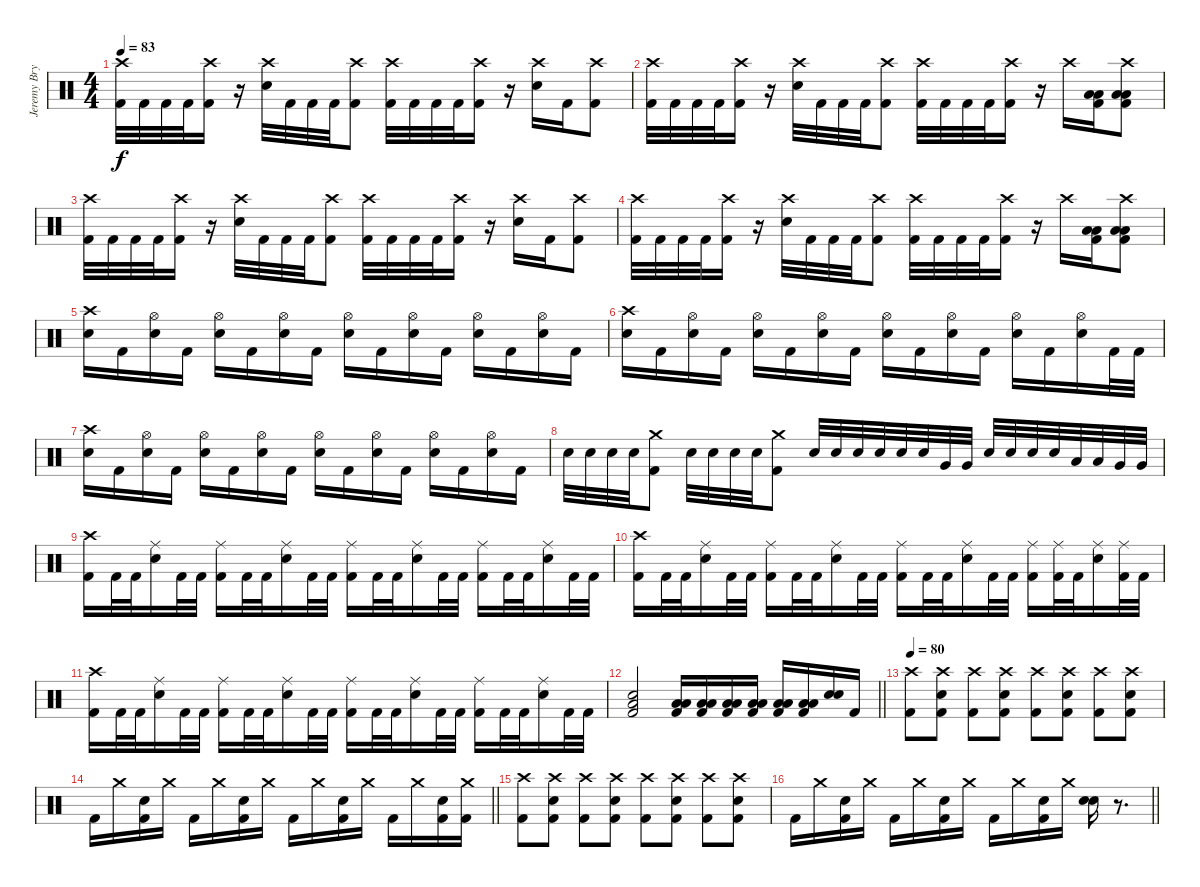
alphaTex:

\track ("Jeremy Bryan - Drums" "Jeremy Bry") {instrument percussion}
\staff {score}
\articulation defaults
\ts (4 4)
\tempo 83
\clef neutral
\ks c
("Crash high (hit)" "Kick (hit) 2").32{dy f} "Kick (hit) 2".32 "Kick (hit) 2".32 "Kick (hit) 2".32 ("Crash high (hit)" "Kick (hit) 2").16 r.16 ("Crash high (hit)" "Electric Snare (hit)").32 "Kick (hit) 2".32 "Kick (hit) 2".32 "Kick (hit) 2".32 ("Crash high (hit)" "Kick (hit) 2").8 ("Crash high (hit)" "Kick (hit) 2").32 "Kick (hit) 2".32 "Kick (hit) 2".32 "Kick (hit) 2".32 ("Crash high (hit)" "Kick (hit) 2").16 r.16 ("Crash high (hit)" "Electric Snare (hit)").16 "Kick (hit) 2".16 ("Crash high (hit)" "Kick (hit) 2").8 |
("Crash high (hit)" "Kick (hit) 2").32 "Kick (hit) 2".32 "Kick (hit) 2".32 "Kick (hit) 2".32 ("Crash high (hit)" "Kick (hit) 2").16 r.16 ("Crash high (hit)" "Electric Snare (hit)").32 "Kick (hit) 2".32 "Kick (hit) 2".32 "Kick (hit) 2".32 ("Crash high (hit)" "Kick (hit) 2").8 ("Crash high (hit)" "Kick (hit) 2").32 "Kick (hit) 2".32 "Kick (hit) 2".32 "Kick (hit) 2".32 ("Crash high (hit)" "Kick (hit) 2").16 r.16 "Crash high (hit)".16 ("Low Tom (hit)" "Low Floor Tom (hit)" "Kick (hit) 2").16 ("Crash high (hit)" "Low Tom (hit)" "Low Floor Tom (hit)" "Kick (hit) 2").8 |
("Crash high (hit)" "Kick (hit) 2").32 "Kick (hit) 2".32 "Kick (hit) 2".32 "Kick (hit) 2".32 ("Crash high (hit)" "Kick (hit) 2").16 r.16 ("Crash high (hit)" "Electric Snare (hit)").32 "Kick (hit) 2".32 "Kick (hit) 2".32 "Kick (hit) 2".32 ("Crash high (hit)" "Kick (hit) 2").8 ("Crash high (hit)" "Kick (hit) 2").32 "Kick (hit) 2".32 "Kick (hit) 2".32 "Kick (hit) 2".32 ("Crash high (hit)" "Kick (hit) 2").16 r.16 ("Crash high (hit)" "Electric Snare (hit)").16 "Kick (hit) 2".16 ("Crash high (hit)" "Kick (hit) 2").8 |
("Crash high (hit)" "Kick (hit) 2").32 "Kick (hit) 2".32 "Kick (hit) 2".32 "Kick (hit) 2".32 ("Crash high (hit)" "Kick (hit) 2").16 r.16 ("Crash high (hit)" "Electric Snare (hit)").32 "Kick (hit) 2".32 "Kick (hit) 2".32 "Kick (hit) 2".32 ("Crash high (hit)" "Kick (hit) 2").8 ("Crash high (hit)" "Kick (hit) 2").32 "Kick (hit) 2".32 "Kick (hit) 2".32 "Kick (hit) 2".32 ("Crash high (hit)" "Kick (hit) 2").16 r.16 "Crash high (hit)".16 ("Low Tom (hit)" "Low Floor Tom (hit)" "Kick (hit) 2").16 ("Crash high (hit)" "Low Tom (hit)" "Low Floor Tom (hit)" "Kick (hit) 2").8 |
("Crash high (hit)" "Electric Snare (hit)").16 "Kick (hit) 2".16 ("Hi-Hat (open)" "Electric Snare (hit)").16 "Kick (hit) 2".16 ("Hi-Hat (open)" "Electric Snare (hit)").16 "Kick (hit) 2".16 ("Hi-Hat (open)" "Electric Snare (hit)").16 "Kick (hit) 2".16 ("Hi-Hat (open)" "Electric Snare (hit)").16 "Kick (hit) 2".16 ("Hi-Hat (open)" "Electric Snare (hit)").16 "Kick (hit) 2".16 ("Hi-Hat (open)" "Electric Snare (hit)").16 "Kick (hit) 2".16 ("Hi-Hat (open)" "Electric Snare (hit)").16 "Kick (hit) 2".16 |
("Crash high (hit)" "Electric Snare (hit)").16 "Kick (hit) 2".16 ("Hi-Hat (open)" "Electric Snare (hit)").16 "Kick (hit) 2".16 ("Hi-Hat (open)" "Electric Snare (hit)").16 "Kick (hit) 2".16 ("Hi-Hat (open)" "Electric Snare (hit)").16 "Kick (hit) 2".16 ("Hi-Hat (open)" "Electric Snare (hit)").16 "Kick (hit) 2".16 ("Hi-Hat (open)" "Electric Snare (hit)").16 "Kick (hit) 2".16 ("Hi-Hat (open)" "Electric Snare (hit)").16 "Kick (hit) 2".16 ("Hi-Hat (open)" "Electric Snare (hit)").16 "Kick (hit) 2".32 "Kick (hit) 2".32 |
("Crash high (hit)" "Electric Snare (hit)").16 "Kick (hit) 2".16 ("Hi-Hat (open)" "Electric Snare (hit)").16 "Kick (hit) 2".16 ("Hi-Hat (open)" "Electric Snare (hit)").16 "Kick (hit) 2".16 ("Hi-Hat (open)" "Electric Snare (hit)").16 "Kick (hit) 2".16 ("Hi-Hat (open)" "Electric Snare (hit)").16 "Kick (hit) 2".16 ("Hi-Hat (open)" "Electric Snare (hit)").16 "Kick (hit) 2".16 ("Hi-Hat (open)" "Electric Snare (hit)").16 "Kick (hit) 2".16 ("Hi-Hat (open)" "Electric Snare (hit)").16 "Kick (hit) 2".16 |
"Electric Snare (hit)".32 "Electric Snare (hit)".32 "Electric Snare (hit)".32 "Electric Snare (hit)".32 ("Crash medium (hit)" "Kick (hit) 2").8 "Electric Snare (hit)".32 "Electric Snare (hit)".32 "Electric Snare (hit)".32 "Electric Snare (hit)".32 ("Crash medium (hit)" "Kick (hit) 2").8 "Electric Snare (hit)".32 "Electric Snare (hit)".32 "Electric Snare (hit)".32 "Electric Snare (hit)".32 "Electric Snare (hit)".32 "Electric Snare (hit)".32 "Very Low Tom (hit)".32 "Very Low Tom (hit)".32 "Electric Snare (hit)".32 "Electric Snare (hit)".32 "Electric Snare (hit)".32 "Electric Snare (hit)".32 "Low Tom (hit)".32 "Low Tom (hit)".32 "Very Low Tom (hit)".32 "Very Low Tom (hit)".32 |
("Crash high (hit)" "Kick (hit) 2").16 "Kick (hit) 2".32 "Kick (hit) 2".32 ("Ride (middle)" "Electric Snare (hit)").16 "Kick (hit) 2".32 "Kick (hit) 2".32 ("Ride (middle)" "Kick (hit) 2").16 "Kick (hit) 2".32 "Kick (hit) 2".32 ("Ride (middle)" "Electric Snare (hit)").16 "Kick (hit) 2".32 "Kick (hit) 2".32 ("Ride (middle)" "Kick (hit) 2").16 "Kick (hit) 2".32 "Kick (hit) 2".32 ("Ride (middle)" "Electric Snare (hit)").16 "Kick (hit) 2".32 "Kick (hit) 2".32 ("Ride (middle)" "Kick (hit) 2").16 "Kick (hit) 2".32 "Kick (hit) 2".32 ("Ride (middle)" "Electric Snare (hit)").16 "Kick (hit) 2".32 "Kick (hit) 2".32 |
("Crash high (hit)" "Kick (hit) 2").16 "Kick (hit) 2".32 "Kick (hit) 2".32 ("Ride (middle)" "Electric Snare (hit)").16 "Kick (hit) 2".32 "Kick (hit) 2".32 ("Ride (middle)" "Kick (hit) 2").16 "Kick (hit) 2".32 "Kick (hit) 2".32 ("Ride (middle)" "Electric Snare (hit)").16 "Kick (hit) 2".32 "Kick (hit) 2".32 ("Ride (middle)" "Kick (hit) 2").16 "Kick (hit) 2".32 "Kick (hit) 2".32 ("Ride (middle)" "Electric Snare (hit)").16 "Kick (hit) 2".32 "Kick (hit) 2".32 ("Ride (middle)" "Kick (hit) 2").16 ("Ride (middle)" "Kick (hit) 2").32 "Kick (hit) 2".32 ("Ride (middle)" "Electric Snare (hit)").16 ("Ride (middle)" "Kick (hit) 2").32 "Kick (hit) 2".32 |
("Crash high (hit)" "Kick (hit) 2").16 "Kick (hit) 2".32 "Kick (hit) 2".32 ("Ride (middle)" "Electric Snare (hit)").16 "Kick (hit) 2".32 "Kick (hit) 2".32 ("Ride (middle)" "Kick (hit) 2").16 "Kick (hit) 2".32 "Kick (hit) 2".32 ("Ride (middle)" "Electric Snare (hit)").16 "Kick (hit) 2".32 "Kick (hit) 2".32 ("Ride (middle)" "Kick (hit) 2").16 "Kick (hit) 2".32 "Kick (hit) 2".32 ("Ride (middle)" "Electric Snare (hit)").16 "Kick (hit) 2".32 "Kick (hit) 2".32 ("Ride (middle)" "Kick (hit) 2").16 "Kick (hit) 2".32 "Kick (hit) 2".32 ("Ride (middle)" "Electric Snare (hit)").16 "Kick (hit) 2".32 "Kick (hit) 2".32 |
\barLineRight lightlight
("Low Floor Tom (hit)" "Electric Snare (hit)" "Kick (hit) 2").2 ("Low Tom (hit)" "Low Floor Tom (hit)" "Kick (hit) 2").16 ("Low Tom (hit)" "Low Floor Tom (hit)" "Kick (hit) 2").16 ("Low Tom (hit)" "Low Floor Tom (hit)" "Kick (hit) 2").16 ("Low Tom (hit)" "Low Floor Tom (hit)" "Kick (hit) 2").16 ("Low Tom (hit)" "Low Floor Tom (hit)" "Kick (hit) 2").16 ("Low Tom (hit)" "Low Floor Tom (hit)" "Kick (hit) 2").16 ("Electric Snare (hit)" "Electric Snare (hit)").16 "Kick (hit) 2".16 |
\tempo 80
("Crash high (hit)" "Kick (hit) 2").8 ("Crash high (hit)" "Electric Snare (hit)" "Kick (hit) 2").8 ("Crash high (hit)" "Kick (hit) 2").8 ("Crash high (hit)" "Electric Snare (hit)" "Kick (hit) 2").8 ("Crash high (hit)" "Kick (hit) 2").8 ("Crash high (hit)" "Electric Snare (hit)" "Kick (hit) 2").8 ("Crash high (hit)" "Kick (hit) 2").8 ("Crash high (hit)" "Electric Snare (hit)" "Kick (hit) 2").8 |
\barLineRight lightlight "Kick (hit) 2".16 "Crash medium (hit)".16
("Electric Snare (hit)" "Kick (hit) 2").16 "Crash medium (hit)".16 "Kick (hit) 2".16 "Crash medium (hit)".16 ("Electric Snare (hit)" "Kick (hit) 2").16 "Crash medium (hit)".16 "Kick (hit) 2".16 "Crash medium (hit)".16 ("Electric Snare (hit)" "Kick (hit) 2").16 "Crash medium (hit)".16 "Kick (hit) 2".16 "Crash medium (hit)".16 ("Electric Snare (hit)" "Kick (hit) 2").16 ("Crash medium (hit)" "Kick (hit) 2").16 |
("Crash high (hit)" "Kick (hit) 2").8 ("Crash high (hit)" "Electric Snare (hit)" "Kick (hit) 2").8 ("Crash high (hit)" "Kick (hit) 2").8 ("Crash high (hit)" "Electric Snare (hit)" "Kick (hit) 2").8 ("Crash high (hit)" "Kick (hit) 2").8 ("Crash high (hit)" "Electric Snare (hit)" "Kick (hit) 2").8 ("Crash high (hit)" "Kick (hit) 2").8 ("Crash high (hit)" "Electric Snare (hit)" "Kick (hit) 2").8 |
\barLineRight lightlight "Kick (hit) 2".16 "Crash medium (hit)".16
("Electric Snare (hit)" "Kick (hit) 2").16 "Crash medium (hit)".16 "Kick (hit) 2".16 "Crash medium (hit)".16 ("Electric Snare (hit)" "Kick (hit) 2").16 "Crash medium (hit)".16 "Kick (hit) 2".16 "Crash medium (hit)".16 ("Electric Snare (hit)" "Kick (hit) 2").16 "Crash medium (hit)".16 ("Electric Snare (hit)" "Electric Snare (hit)").16 r.8{d}
